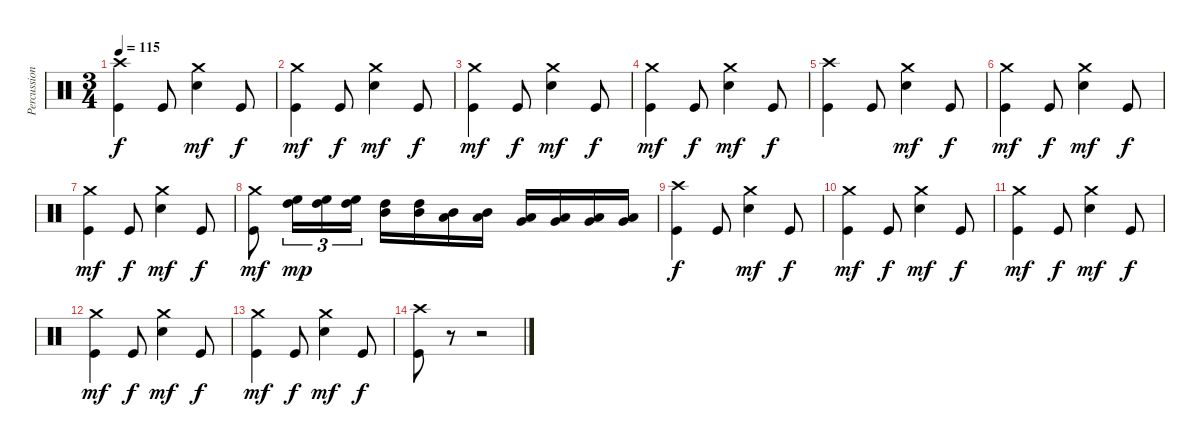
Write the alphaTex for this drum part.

\track ("Percussions" "Percussion") {instrument percussion}
\staff {score}
\articulation defaults
\ts (3 4)
\tempo 115
\clef neutral
\ks c
("Kick (hit)" "Crash high (hit)").4{dy f} "Kick (hit)".8 ("Electric Snare (hit)" "Crash medium (hit)").4{dy mf} "Kick (hit)".8{dy f} |
("Kick (hit)" "Crash medium (hit)").4{dy mf} "Kick (hit)".8{dy f} ("Electric Snare (hit)" "Crash medium (hit)").4{dy mf} "Kick (hit)".8{dy f} |
("Kick (hit)" "Crash medium (hit)").4{dy mf} "Kick (hit)".8{dy f} ("Electric Snare (hit)" "Crash medium (hit)").4{dy mf} "Kick (hit)".8{dy f} |
("Kick (hit)" "Crash medium (hit)").4{dy mf} "Kick (hit)".8{dy f} ("Electric Snare (hit)" "Crash medium (hit)").4{dy mf} "Kick (hit)".8{dy f} |
("Kick (hit)" "Crash high (hit)").4 "Kick (hit)".8 ("Electric Snare (hit)" "Crash medium (hit)").4{dy mf} "Kick (hit)".8{dy f} |
("Kick (hit)" "Crash medium (hit)").4{dy mf} "Kick (hit)".8{dy f} ("Electric Snare (hit)" "Crash medium (hit)").4{dy mf} "Kick (hit)".8{dy f} |
("Kick (hit)" "Crash medium (hit)").4{dy mf} "Kick (hit)".8{dy f} ("Electric Snare (hit)" "Crash medium (hit)").4{dy mf} "Kick (hit)".8{dy f} |
("Kick (hit)" "Crash medium (hit)").8{dy mf} ("High Tom (hit)" "High Floor Tom (hit)").16{tu (3 2) dy mp} ("High Tom (hit)" "High Floor Tom (hit)").16{tu (3 2)} ("High Tom (hit)" "High Floor Tom (hit)").16{tu (3 2)} ("Mid Tom (hit)" "High Tom (hit)").16 ("Mid Tom (hit)" "High Tom (hit)").16 ("Low Tom (hit)" "Mid Tom (hit)").16 ("Low Tom (hit)" "Mid Tom (hit)").16 ("Very Low Tom (hit)" "Low Tom (hit)").16 ("Very Low Tom (hit)" "Low Tom (hit)").16 ("Low Floor Tom (hit)" "Very Low Tom (hit)").16 ("Low Floor Tom (hit)" "Very Low Tom (hit)").16 |
("Kick (hit)" "Crash high (hit)").4{dy f} "Kick (hit)".8 ("Electric Snare (hit)" "Crash medium (hit)").4{dy mf} "Kick (hit)".8{dy f} |
("Kick (hit)" "Crash medium (hit)").4{dy mf} "Kick (hit)".8{dy f} ("Electric Snare (hit)" "Crash medium (hit)").4{dy mf} "Kick (hit)".8{dy f} |
("Kick (hit)" "Crash medium (hit)").4{dy mf} "Kick (hit)".8{dy f} ("Electric Snare (hit)" "Crash medium (hit)").4{dy mf} "Kick (hit)".8{dy f} |
("Kick (hit)" "Crash medium (hit)").4{dy mf} "Kick (hit)".8{dy f} ("Electric Snare (hit)" "Crash medium (hit)").4{dy mf} "Kick (hit)".8{dy f} |
("Kick (hit)" "Crash medium (hit)").4{dy mf} "Kick (hit)".8{dy f} ("Electric Snare (hit)" "Crash medium (hit)").4{dy mf} "Kick (hit)".8{dy f} |
("Kick (hit)" "Crash high (hit)").8 r.8 r.2
